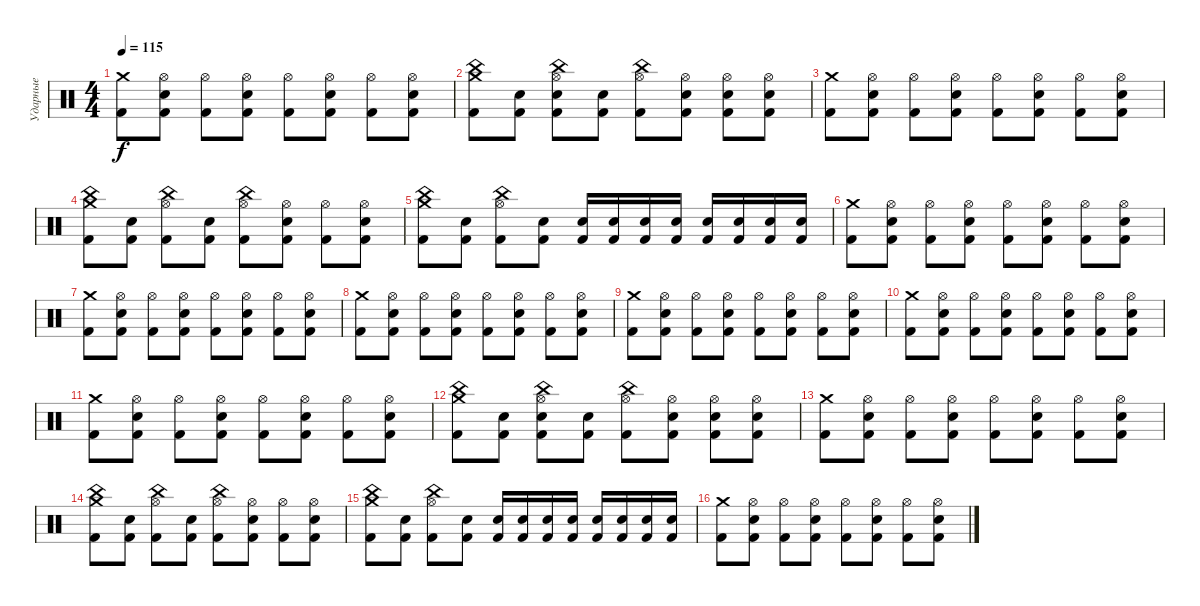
\track ("Ударные" "Ударные") {instrument percussion}
\staff {score}
\articulation defaults
\ts (4 4)
\tempo 115
\clef neutral
\ks c
("Kick (hit) 2" "Crash medium (hit)").8{dy f} ("Kick (hit) 2" "Snare (hit) 2" "Hi-Hat (open)").8 ("Kick (hit) 2" "Hi-Hat (open)").8 ("Kick (hit) 2" "Snare (hit) 2" "Hi-Hat (open)").8 ("Kick (hit) 2" "Hi-Hat (open)").8 ("Kick (hit) 2" "Snare (hit) 2" "Hi-Hat (open)").8 ("Kick (hit) 2" "Hi-Hat (open)").8 ("Kick (hit) 2" "Snare (hit) 2" "Hi-Hat (open)").8 |
("Kick (hit) 2" "Crash medium (hit)" "China (hit)").8 ("Kick (hit) 2" "Snare (hit) 2").8 ("Kick (hit) 2" "Snare (hit) 2" "Hi-Hat (open)" "China (hit)").8 ("Kick (hit) 2" "Snare (hit) 2").8 ("Kick (hit) 2" "Hi-Hat (open)" "China (hit)").8 ("Kick (hit) 2" "Snare (hit) 2" "Hi-Hat (open)").8 ("Kick (hit) 2" "Snare (hit) 2" "Hi-Hat (open)").8 ("Kick (hit) 2" "Snare (hit) 2" "Hi-Hat (open)").8 |
("Kick (hit) 2" "Crash medium (hit)").8 ("Kick (hit) 2" "Snare (hit) 2" "Hi-Hat (open)").8 ("Kick (hit) 2" "Hi-Hat (open)").8 ("Kick (hit) 2" "Snare (hit) 2" "Hi-Hat (open)").8 ("Kick (hit) 2" "Hi-Hat (open)").8 ("Kick (hit) 2" "Snare (hit) 2" "Hi-Hat (open)").8 ("Kick (hit) 2" "Hi-Hat (open)").8 ("Kick (hit) 2" "Snare (hit) 2" "Hi-Hat (open)").8 |
("Kick (hit) 2" "Crash medium (hit)" "China (hit)").8 ("Kick (hit) 2" "Snare (hit) 2").8 ("Kick (hit) 2" "Hi-Hat (open)" "China (hit)").8 ("Kick (hit) 2" "Snare (hit) 2").8 ("Kick (hit) 2" "Hi-Hat (open)" "China (hit)").8 ("Kick (hit) 2" "Snare (hit) 2" "Hi-Hat (open)").8 ("Kick (hit) 2" "Hi-Hat (open)").8 ("Kick (hit) 2" "Snare (hit) 2" "Hi-Hat (open)").8 |
("Kick (hit) 2" "Crash medium (hit)" "China (hit)").8 ("Kick (hit) 2" "Snare (hit) 2").8 ("Kick (hit) 2" "Hi-Hat (open)" "China (hit)").8 ("Kick (hit) 2" "Snare (hit) 2").8 ("Kick (hit) 2" "Snare (hit) 2").16 ("Kick (hit) 2" "Snare (hit) 2").16 ("Kick (hit) 2" "Snare (hit) 2").16 ("Kick (hit) 2" "Snare (hit) 2").16 ("Kick (hit) 2" "Snare (hit) 2").16 ("Kick (hit) 2" "Snare (hit) 2").16 ("Kick (hit) 2" "Snare (hit) 2").16 ("Kick (hit) 2" "Snare (hit) 2").16 |
("Kick (hit) 2" "Crash medium (hit)").8 ("Kick (hit) 2" "Snare (hit) 2" "Hi-Hat (open)").8 ("Kick (hit) 2" "Hi-Hat (open)").8 ("Kick (hit) 2" "Snare (hit) 2" "Hi-Hat (open)").8 ("Kick (hit) 2" "Hi-Hat (open)").8 ("Kick (hit) 2" "Snare (hit) 2" "Hi-Hat (open)").8 ("Kick (hit) 2" "Hi-Hat (open)").8 ("Kick (hit) 2" "Snare (hit) 2" "Hi-Hat (open)").8 |
("Kick (hit) 2" "Crash medium (hit)").8 ("Kick (hit) 2" "Snare (hit) 2" "Hi-Hat (open)").8 ("Kick (hit) 2" "Hi-Hat (open)").8 ("Kick (hit) 2" "Snare (hit) 2" "Hi-Hat (open)").8 ("Kick (hit) 2" "Hi-Hat (open)").8 ("Kick (hit) 2" "Snare (hit) 2" "Hi-Hat (open)").8 ("Kick (hit) 2" "Hi-Hat (open)").8 ("Kick (hit) 2" "Snare (hit) 2" "Hi-Hat (open)").8 |
("Kick (hit) 2" "Crash medium (hit)").8 ("Kick (hit) 2" "Snare (hit) 2" "Hi-Hat (open)").8 ("Kick (hit) 2" "Hi-Hat (open)").8 ("Kick (hit) 2" "Snare (hit) 2" "Hi-Hat (open)").8 ("Kick (hit) 2" "Hi-Hat (open)").8 ("Kick (hit) 2" "Snare (hit) 2" "Hi-Hat (open)").8 ("Kick (hit) 2" "Hi-Hat (open)").8 ("Kick (hit) 2" "Snare (hit) 2" "Hi-Hat (open)").8 |
("Kick (hit) 2" "Crash medium (hit)").8 ("Kick (hit) 2" "Snare (hit) 2" "Hi-Hat (open)").8 ("Kick (hit) 2" "Hi-Hat (open)").8 ("Kick (hit) 2" "Snare (hit) 2" "Hi-Hat (open)").8 ("Kick (hit) 2" "Hi-Hat (open)").8 ("Kick (hit) 2" "Snare (hit) 2" "Hi-Hat (open)").8 ("Kick (hit) 2" "Hi-Hat (open)").8 ("Kick (hit) 2" "Snare (hit) 2" "Hi-Hat (open)").8 |
("Kick (hit) 2" "Crash medium (hit)").8 ("Kick (hit) 2" "Snare (hit) 2" "Hi-Hat (open)").8 ("Kick (hit) 2" "Hi-Hat (open)").8 ("Kick (hit) 2" "Snare (hit) 2" "Hi-Hat (open)").8 ("Kick (hit) 2" "Hi-Hat (open)").8 ("Kick (hit) 2" "Snare (hit) 2" "Hi-Hat (open)").8 ("Kick (hit) 2" "Hi-Hat (open)").8 ("Kick (hit) 2" "Snare (hit) 2" "Hi-Hat (open)").8 |
("Kick (hit) 2" "Crash medium (hit)").8 ("Kick (hit) 2" "Snare (hit) 2" "Hi-Hat (open)").8 ("Kick (hit) 2" "Hi-Hat (open)").8 ("Kick (hit) 2" "Snare (hit) 2" "Hi-Hat (open)").8 ("Kick (hit) 2" "Hi-Hat (open)").8 ("Kick (hit) 2" "Snare (hit) 2" "Hi-Hat (open)").8 ("Kick (hit) 2" "Hi-Hat (open)").8 ("Kick (hit) 2" "Snare (hit) 2" "Hi-Hat (open)").8 |
("Kick (hit) 2" "Crash medium (hit)" "China (hit)").8 ("Kick (hit) 2" "Snare (hit) 2").8 ("Kick (hit) 2" "Snare (hit) 2" "Hi-Hat (open)" "China (hit)").8 ("Kick (hit) 2" "Snare (hit) 2").8 ("Kick (hit) 2" "Hi-Hat (open)" "China (hit)").8 ("Kick (hit) 2" "Snare (hit) 2" "Hi-Hat (open)").8 ("Kick (hit) 2" "Snare (hit) 2" "Hi-Hat (open)").8 ("Kick (hit) 2" "Snare (hit) 2" "Hi-Hat (open)").8 |
("Kick (hit) 2" "Crash medium (hit)").8 ("Kick (hit) 2" "Snare (hit) 2" "Hi-Hat (open)").8 ("Kick (hit) 2" "Hi-Hat (open)").8 ("Kick (hit) 2" "Snare (hit) 2" "Hi-Hat (open)").8 ("Kick (hit) 2" "Hi-Hat (open)").8 ("Kick (hit) 2" "Snare (hit) 2" "Hi-Hat (open)").8 ("Kick (hit) 2" "Hi-Hat (open)").8 ("Kick (hit) 2" "Snare (hit) 2" "Hi-Hat (open)").8 |
("Kick (hit) 2" "Crash medium (hit)" "China (hit)").8 ("Kick (hit) 2" "Snare (hit) 2").8 ("Kick (hit) 2" "Hi-Hat (open)" "China (hit)").8 ("Kick (hit) 2" "Snare (hit) 2").8 ("Kick (hit) 2" "Hi-Hat (open)" "China (hit)").8 ("Kick (hit) 2" "Snare (hit) 2" "Hi-Hat (open)").8 ("Kick (hit) 2" "Hi-Hat (open)").8 ("Kick (hit) 2" "Snare (hit) 2" "Hi-Hat (open)").8 |
("Kick (hit) 2" "Crash medium (hit)" "China (hit)").8 ("Kick (hit) 2" "Snare (hit) 2").8 ("Kick (hit) 2" "Hi-Hat (open)" "China (hit)").8 ("Kick (hit) 2" "Snare (hit) 2").8 ("Kick (hit) 2" "Snare (hit) 2").16 ("Kick (hit) 2" "Snare (hit) 2").16 ("Kick (hit) 2" "Snare (hit) 2").16 ("Kick (hit) 2" "Snare (hit) 2").16 ("Kick (hit) 2" "Snare (hit) 2").16 ("Kick (hit) 2" "Snare (hit) 2").16 ("Kick (hit) 2" "Snare (hit) 2").16 ("Kick (hit) 2" "Snare (hit) 2").16 |
("Kick (hit) 2" "Crash medium (hit)").8 ("Kick (hit) 2" "Snare (hit) 2" "Hi-Hat (open)").8 ("Kick (hit) 2" "Hi-Hat (open)").8 ("Kick (hit) 2" "Snare (hit) 2" "Hi-Hat (open)").8 ("Kick (hit) 2" "Hi-Hat (open)").8 ("Kick (hit) 2" "Snare (hit) 2" "Hi-Hat (open)").8 ("Kick (hit) 2" "Hi-Hat (open)").8 ("Kick (hit) 2" "Snare (hit) 2" "Hi-Hat (open)").8
